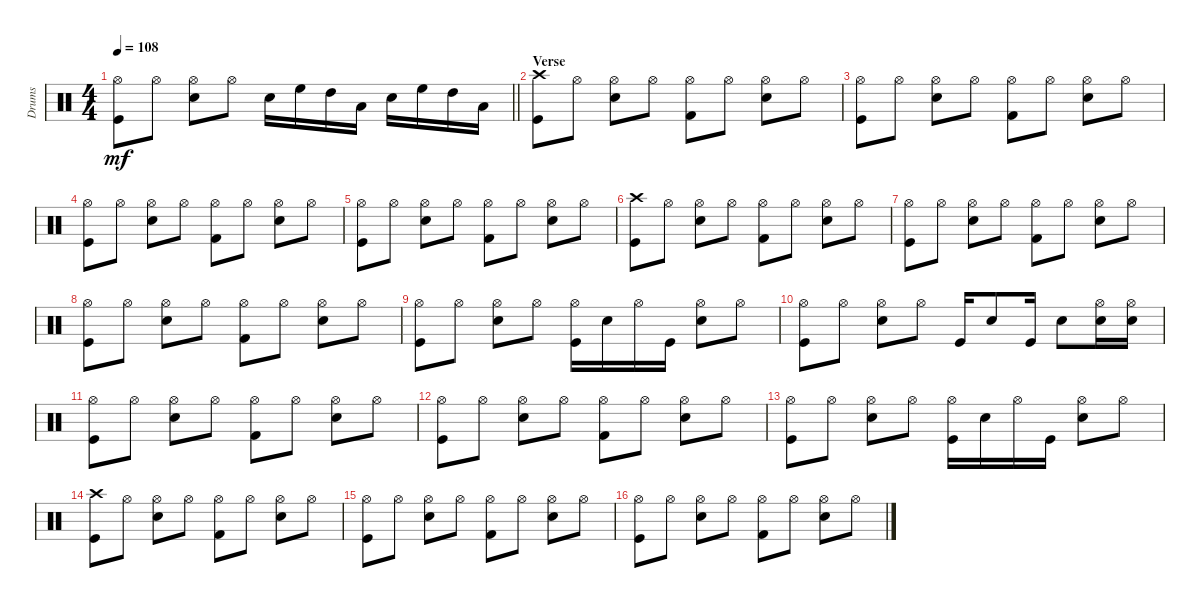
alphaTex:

\track ("Drums" "Drums") {instrument percussion}
\staff {score}
\articulation defaults
\ts (4 4)
\tempo 108
\clef neutral
\barLineRight lightlight
\ks c
("Kick (hit)" "Hi-Hat (open)").8{dy mf} "Hi-Hat (open)".8 ("Snare (hit) 2" "Hi-Hat (open)").8 "Hi-Hat (open)".8 "Snare (hit) 2".16 "High Floor Tom (hit)".16 "High Tom (hit)".16 "Low Floor Tom (hit)".16 "Snare (hit) 2".16 "High Floor Tom (hit)".16 "High Tom (hit)".16 "Low Floor Tom (hit)".16 |
\section ("" "Verse")
("Crash high (hit)" "Kick (hit)").8 "Hi-Hat (open)".8 ("Hi-Hat (open)" "Snare (hit) 2").8 "Hi-Hat (open)".8 ("Hi-Hat (open)" "Kick (hit) 2").8 "Hi-Hat (open)".8 ("Hi-Hat (open)" "Snare (hit) 2").8 "Hi-Hat (open)".8 |
("Hi-Hat (open)" "Kick (hit)").8 "Hi-Hat (open)".8 ("Hi-Hat (open)" "Snare (hit) 2").8 "Hi-Hat (open)".8 ("Hi-Hat (open)" "Kick (hit) 2").8 "Hi-Hat (open)".8 ("Hi-Hat (open)" "Snare (hit) 2").8 "Hi-Hat (open)".8 |
("Hi-Hat (open)" "Kick (hit)").8 "Hi-Hat (open)".8 ("Hi-Hat (open)" "Snare (hit) 2").8 "Hi-Hat (open)".8 ("Hi-Hat (open)" "Kick (hit) 2").8 "Hi-Hat (open)".8 ("Hi-Hat (open)" "Snare (hit) 2").8 "Hi-Hat (open)".8 |
("Hi-Hat (open)" "Kick (hit)").8 "Hi-Hat (open)".8 ("Hi-Hat (open)" "Snare (hit) 2").8 "Hi-Hat (open)".8 ("Hi-Hat (open)" "Kick (hit) 2").8 "Hi-Hat (open)".8 ("Hi-Hat (open)" "Snare (hit) 2").8 "Hi-Hat (open)".8 |
("Crash high (hit)" "Kick (hit)").8 "Hi-Hat (open)".8 ("Hi-Hat (open)" "Snare (hit) 2").8 "Hi-Hat (open)".8 ("Hi-Hat (open)" "Kick (hit) 2").8 "Hi-Hat (open)".8 ("Hi-Hat (open)" "Snare (hit) 2").8 "Hi-Hat (open)".8 |
("Hi-Hat (open)" "Kick (hit)").8 "Hi-Hat (open)".8 ("Hi-Hat (open)" "Snare (hit) 2").8 "Hi-Hat (open)".8 ("Hi-Hat (open)" "Kick (hit) 2").8 "Hi-Hat (open)".8 ("Hi-Hat (open)" "Snare (hit) 2").8 "Hi-Hat (open)".8 |
("Hi-Hat (open)" "Kick (hit)").8 "Hi-Hat (open)".8 ("Hi-Hat (open)" "Snare (hit) 2").8 "Hi-Hat (open)".8 ("Hi-Hat (open)" "Kick (hit) 2").8 "Hi-Hat (open)".8 ("Hi-Hat (open)" "Snare (hit) 2").8 "Hi-Hat (open)".8 |
("Kick (hit)" "Hi-Hat (open)").8 "Hi-Hat (open)".8 ("Snare (hit) 2" "Hi-Hat (open)").8 "Hi-Hat (open)".8 ("Hi-Hat (open)" "Kick (hit)").16 "Snare (hit) 2".16 "Hi-Hat (open)".16 "Kick (hit)".16 ("Snare (hit) 2" "Hi-Hat (open)").8 "Hi-Hat (open)".8 |
("Kick (hit)" "Hi-Hat (open)").8 "Hi-Hat (open)".8 ("Snare (hit) 2" "Hi-Hat (open)").8 "Hi-Hat (open)".8 "Kick (hit)".16 "Snare (hit) 2".8 "Kick (hit)".16 "Snare (hit) 2".8 ("Hi-Hat (open)" "Snare (hit) 2").16 ("Hi-Hat (open)" "Snare (hit) 2").16 |
("Hi-Hat (open)" "Kick (hit)").8 "Hi-Hat (open)".8 ("Hi-Hat (open)" "Snare (hit) 2").8 "Hi-Hat (open)".8 ("Hi-Hat (open)" "Kick (hit) 2").8 "Hi-Hat (open)".8 ("Hi-Hat (open)" "Snare (hit) 2").8 "Hi-Hat (open)".8 |
("Hi-Hat (open)" "Kick (hit)").8 "Hi-Hat (open)".8 ("Hi-Hat (open)" "Snare (hit) 2").8 "Hi-Hat (open)".8 ("Hi-Hat (open)" "Kick (hit) 2").8 "Hi-Hat (open)".8 ("Hi-Hat (open)" "Snare (hit) 2").8 "Hi-Hat (open)".8 |
("Kick (hit)" "Hi-Hat (open)").8 "Hi-Hat (open)".8 ("Snare (hit) 2" "Hi-Hat (open)").8 "Hi-Hat (open)".8 ("Hi-Hat (open)" "Kick (hit)").16 "Snare (hit) 2".16 "Hi-Hat (open)".16 "Kick (hit)".16 ("Snare (hit) 2" "Hi-Hat (open)").8 "Hi-Hat (open)".8 |
("Crash high (hit)" "Kick (hit)").8 "Hi-Hat (open)".8 ("Hi-Hat (open)" "Snare (hit) 2").8 "Hi-Hat (open)".8 ("Hi-Hat (open)" "Kick (hit) 2").8 "Hi-Hat (open)".8 ("Hi-Hat (open)" "Snare (hit) 2").8 "Hi-Hat (open)".8 |
("Hi-Hat (open)" "Kick (hit)").8 "Hi-Hat (open)".8 ("Hi-Hat (open)" "Snare (hit) 2").8 "Hi-Hat (open)".8 ("Hi-Hat (open)" "Kick (hit) 2").8 "Hi-Hat (open)".8 ("Hi-Hat (open)" "Snare (hit) 2").8 "Hi-Hat (open)".8 |
("Hi-Hat (open)" "Kick (hit)").8 "Hi-Hat (open)".8 ("Hi-Hat (open)" "Snare (hit) 2").8 "Hi-Hat (open)".8 ("Hi-Hat (open)" "Kick (hit) 2").8 "Hi-Hat (open)".8 ("Hi-Hat (open)" "Snare (hit) 2").8 "Hi-Hat (open)".8
